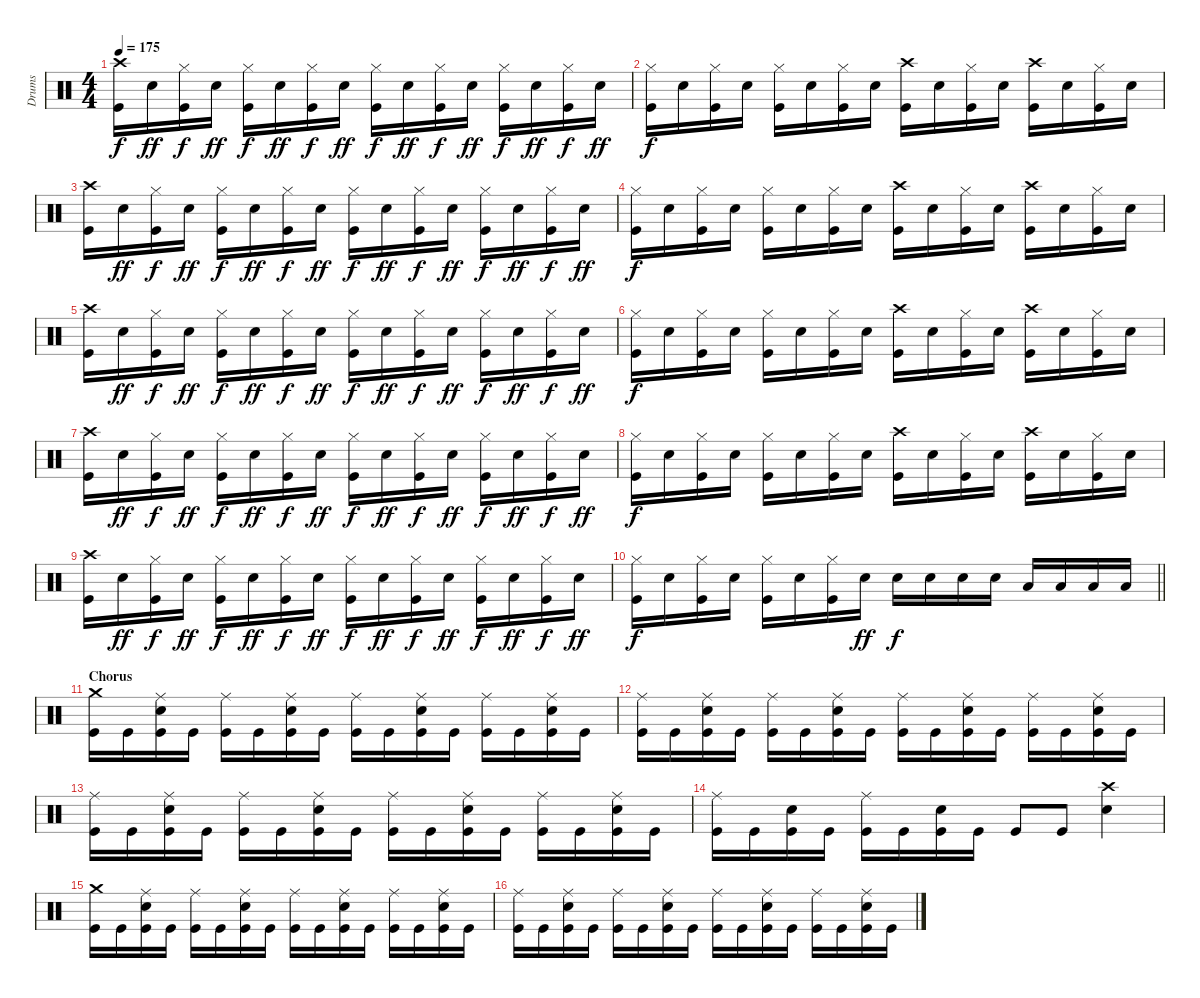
\track ("Drums" "Drums") {instrument percussion}
\staff {score}
\articulation defaults
\ts (4 4)
\tempo 175
\clef neutral
\ks c
("Crash high (hit)" "Kick (hit)").16{dy f} "Snare (hit) 2".16{dy ff} ("Hi-Hat (closed)" "Kick (hit)").16{dy f} "Snare (hit) 2".16{dy ff} ("Hi-Hat (closed)" "Kick (hit)").16{dy f} "Snare (hit) 2".16{dy ff} ("Hi-Hat (closed)" "Kick (hit)").16{dy f} "Snare (hit) 2".16{dy ff} ("Hi-Hat (closed)" "Kick (hit)").16{dy f} "Snare (hit) 2".16{dy ff} ("Hi-Hat (closed)" "Kick (hit)").16{dy f} "Snare (hit) 2".16{dy ff} ("Hi-Hat (closed)" "Kick (hit)").16{dy f} "Snare (hit) 2".16{dy ff} ("Hi-Hat (closed)" "Kick (hit)").16{dy f} "Snare (hit) 2".16{dy ff} |
("Hi-Hat (closed)" "Kick (hit)").16{dy f} "Snare (hit) 2".16 ("Hi-Hat (closed)" "Kick (hit)").16 "Snare (hit) 2".16 ("Hi-Hat (closed)" "Kick (hit)").16 "Snare (hit) 2".16 ("Hi-Hat (closed)" "Kick (hit)").16 "Snare (hit) 2".16 ("Crash high (hit)" "Kick (hit)").16 "Snare (hit) 2".16 ("Hi-Hat (closed)" "Kick (hit)").16 "Snare (hit) 2".16 ("Crash high (hit)" "Kick (hit)").16 "Snare (hit) 2".16 ("Hi-Hat (closed)" "Kick (hit)").16 "Snare (hit) 2".16 |
("Crash high (hit)" "Kick (hit)").16 "Snare (hit) 2".16{dy ff} ("Hi-Hat (closed)" "Kick (hit)").16{dy f} "Snare (hit) 2".16{dy ff} ("Hi-Hat (closed)" "Kick (hit)").16{dy f} "Snare (hit) 2".16{dy ff} ("Hi-Hat (closed)" "Kick (hit)").16{dy f} "Snare (hit) 2".16{dy ff} ("Hi-Hat (closed)" "Kick (hit)").16{dy f} "Snare (hit) 2".16{dy ff} ("Hi-Hat (closed)" "Kick (hit)").16{dy f} "Snare (hit) 2".16{dy ff} ("Hi-Hat (closed)" "Kick (hit)").16{dy f} "Snare (hit) 2".16{dy ff} ("Hi-Hat (closed)" "Kick (hit)").16{dy f} "Snare (hit) 2".16{dy ff} |
("Hi-Hat (closed)" "Kick (hit)").16{dy f} "Snare (hit) 2".16 ("Hi-Hat (closed)" "Kick (hit)").16 "Snare (hit) 2".16 ("Hi-Hat (closed)" "Kick (hit)").16 "Snare (hit) 2".16 ("Hi-Hat (closed)" "Kick (hit)").16 "Snare (hit) 2".16 ("Crash high (hit)" "Kick (hit)").16 "Snare (hit) 2".16 ("Hi-Hat (closed)" "Kick (hit)").16 "Snare (hit) 2".16 ("Crash high (hit)" "Kick (hit)").16 "Snare (hit) 2".16 ("Hi-Hat (closed)" "Kick (hit)").16 "Snare (hit) 2".16 |
("Crash high (hit)" "Kick (hit)").16 "Snare (hit) 2".16{dy ff} ("Hi-Hat (closed)" "Kick (hit)").16{dy f} "Snare (hit) 2".16{dy ff} ("Hi-Hat (closed)" "Kick (hit)").16{dy f} "Snare (hit) 2".16{dy ff} ("Hi-Hat (closed)" "Kick (hit)").16{dy f} "Snare (hit) 2".16{dy ff} ("Hi-Hat (closed)" "Kick (hit)").16{dy f} "Snare (hit) 2".16{dy ff} ("Hi-Hat (closed)" "Kick (hit)").16{dy f} "Snare (hit) 2".16{dy ff} ("Hi-Hat (closed)" "Kick (hit)").16{dy f} "Snare (hit) 2".16{dy ff} ("Hi-Hat (closed)" "Kick (hit)").16{dy f} "Snare (hit) 2".16{dy ff} |
("Hi-Hat (closed)" "Kick (hit)").16{dy f} "Snare (hit) 2".16 ("Hi-Hat (closed)" "Kick (hit)").16 "Snare (hit) 2".16 ("Hi-Hat (closed)" "Kick (hit)").16 "Snare (hit) 2".16 ("Hi-Hat (closed)" "Kick (hit)").16 "Snare (hit) 2".16 ("Crash high (hit)" "Kick (hit)").16 "Snare (hit) 2".16 ("Hi-Hat (closed)" "Kick (hit)").16 "Snare (hit) 2".16 ("Crash high (hit)" "Kick (hit)").16 "Snare (hit) 2".16 ("Hi-Hat (closed)" "Kick (hit)").16 "Snare (hit) 2".16 |
("Crash high (hit)" "Kick (hit)").16 "Snare (hit) 2".16{dy ff} ("Hi-Hat (closed)" "Kick (hit)").16{dy f} "Snare (hit) 2".16{dy ff} ("Hi-Hat (closed)" "Kick (hit)").16{dy f} "Snare (hit) 2".16{dy ff} ("Hi-Hat (closed)" "Kick (hit)").16{dy f} "Snare (hit) 2".16{dy ff} ("Hi-Hat (closed)" "Kick (hit)").16{dy f} "Snare (hit) 2".16{dy ff} ("Hi-Hat (closed)" "Kick (hit)").16{dy f} "Snare (hit) 2".16{dy ff} ("Hi-Hat (closed)" "Kick (hit)").16{dy f} "Snare (hit) 2".16{dy ff} ("Hi-Hat (closed)" "Kick (hit)").16{dy f} "Snare (hit) 2".16{dy ff} |
("Hi-Hat (closed)" "Kick (hit)").16{dy f} "Snare (hit) 2".16 ("Hi-Hat (closed)" "Kick (hit)").16 "Snare (hit) 2".16 ("Hi-Hat (closed)" "Kick (hit)").16 "Snare (hit) 2".16 ("Hi-Hat (closed)" "Kick (hit)").16 "Snare (hit) 2".16 ("Crash high (hit)" "Kick (hit)").16 "Snare (hit) 2".16 ("Hi-Hat (closed)" "Kick (hit)").16 "Snare (hit) 2".16 ("Crash high (hit)" "Kick (hit)").16 "Snare (hit) 2".16 ("Hi-Hat (closed)" "Kick (hit)").16 "Snare (hit) 2".16 |
("Crash high (hit)" "Kick (hit)").16 "Snare (hit) 2".16{dy ff} ("Hi-Hat (closed)" "Kick (hit)").16{dy f} "Snare (hit) 2".16{dy ff} ("Hi-Hat (closed)" "Kick (hit)").16{dy f} "Snare (hit) 2".16{dy ff} ("Hi-Hat (closed)" "Kick (hit)").16{dy f} "Snare (hit) 2".16{dy ff} ("Hi-Hat (closed)" "Kick (hit)").16{dy f} "Snare (hit) 2".16{dy ff} ("Hi-Hat (closed)" "Kick (hit)").16{dy f} "Snare (hit) 2".16{dy ff} ("Hi-Hat (closed)" "Kick (hit)").16{dy f} "Snare (hit) 2".16{dy ff} ("Hi-Hat (closed)" "Kick (hit)").16{dy f} "Snare (hit) 2".16{dy ff} |
\barLineRight lightlight
("Hi-Hat (closed)" "Kick (hit)").16{dy f} "Snare (hit) 2".16 ("Hi-Hat (closed)" "Kick (hit)").16 "Snare (hit) 2".16 ("Hi-Hat (closed)" "Kick (hit)").16 "Snare (hit) 2".16 ("Hi-Hat (closed)" "Kick (hit)").16 "Snare (hit) 2".16{dy ff} "Snare (hit) 2".16{dy f} "Snare (hit) 2".16 "Snare (hit) 2".16 "Snare (hit) 2".16 "Low Floor Tom (hit)".16 "Low Floor Tom (hit)".16 "Low Floor Tom (hit)".16 "Low Floor Tom (hit)".16 |
\section ("" "Chorus")
("Crash medium (hit)" "Kick (hit)").16 "Kick (hit)".16 ("Ride (middle)" "Snare (hit) 2" "Kick (hit)").16 "Kick (hit)".16 ("Ride (middle)" "Kick (hit)").16 "Kick (hit)".16 ("Ride (middle)" "Snare (hit) 2" "Kick (hit)").16 "Kick (hit)".16 ("Ride (middle)" "Kick (hit)").16 "Kick (hit)".16 ("Ride (middle)" "Snare (hit) 2" "Kick (hit)").16 "Kick (hit)".16 ("Ride (middle)" "Kick (hit)").16 "Kick (hit)".16 ("Ride (middle)" "Snare (hit) 2" "Kick (hit)").16 "Kick (hit)".16 |
("Ride (middle)" "Kick (hit)").16 "Kick (hit)".16 ("Ride (middle)" "Snare (hit) 2" "Kick (hit)").16 "Kick (hit)".16 ("Ride (middle)" "Kick (hit)").16 "Kick (hit)".16 ("Ride (middle)" "Snare (hit) 2" "Kick (hit)").16 "Kick (hit)".16 ("Ride (middle)" "Kick (hit)").16 "Kick (hit)".16 ("Ride (middle)" "Snare (hit) 2" "Kick (hit)").16 "Kick (hit)".16 ("Ride (middle)" "Kick (hit)").16 "Kick (hit)".16 ("Ride (middle)" "Snare (hit) 2" "Kick (hit)").16 "Kick (hit)".16 |
("Ride (middle)" "Kick (hit)").16 "Kick (hit)".16 ("Ride (middle)" "Snare (hit) 2" "Kick (hit)").16 "Kick (hit)".16 ("Ride (middle)" "Kick (hit)").16 "Kick (hit)".16 ("Ride (middle)" "Snare (hit) 2" "Kick (hit)").16 "Kick (hit)".16 ("Ride (middle)" "Kick (hit)").16 "Kick (hit)".16 ("Ride (middle)" "Snare (hit) 2" "Kick (hit)").16 "Kick (hit)".16 ("Ride (middle)" "Kick (hit)").16 "Kick (hit)".16 ("Ride (middle)" "Snare (hit) 2" "Kick (hit)").16 "Kick (hit)".16 |
("Ride (middle)" "Kick (hit)").16 "Kick (hit)".16 ("Snare (hit) 2" "Kick (hit)").16 "Kick (hit)".16 ("Ride (middle)" "Kick (hit)").16 "Kick (hit)".16 ("Snare (hit) 2" "Kick (hit)").16 "Kick (hit)".16 "Kick (hit)".8 "Kick (hit)".8 ("Crash high (hit)" "Snare (hit) 2").4 |
("Crash medium (hit)" "Kick (hit)").16 "Kick (hit)".16 ("Ride (middle)" "Snare (hit) 2" "Kick (hit)").16 "Kick (hit)".16 ("Ride (middle)" "Kick (hit)").16 "Kick (hit)".16 ("Ride (middle)" "Snare (hit) 2" "Kick (hit)").16 "Kick (hit)".16 ("Ride (middle)" "Kick (hit)").16 "Kick (hit)".16 ("Ride (middle)" "Snare (hit) 2" "Kick (hit)").16 "Kick (hit)".16 ("Ride (middle)" "Kick (hit)").16 "Kick (hit)".16 ("Ride (middle)" "Snare (hit) 2" "Kick (hit)").16 "Kick (hit)".16 |
("Ride (middle)" "Kick (hit)").16 "Kick (hit)".16 ("Ride (middle)" "Snare (hit) 2" "Kick (hit)").16 "Kick (hit)".16 ("Ride (middle)" "Kick (hit)").16 "Kick (hit)".16 ("Ride (middle)" "Snare (hit) 2" "Kick (hit)").16 "Kick (hit)".16 ("Ride (middle)" "Kick (hit)").16 "Kick (hit)".16 ("Ride (middle)" "Snare (hit) 2" "Kick (hit)").16 "Kick (hit)".16 ("Ride (middle)" "Kick (hit)").16 "Kick (hit)".16 ("Ride (middle)" "Snare (hit) 2" "Kick (hit)").16 "Kick (hit)".16
